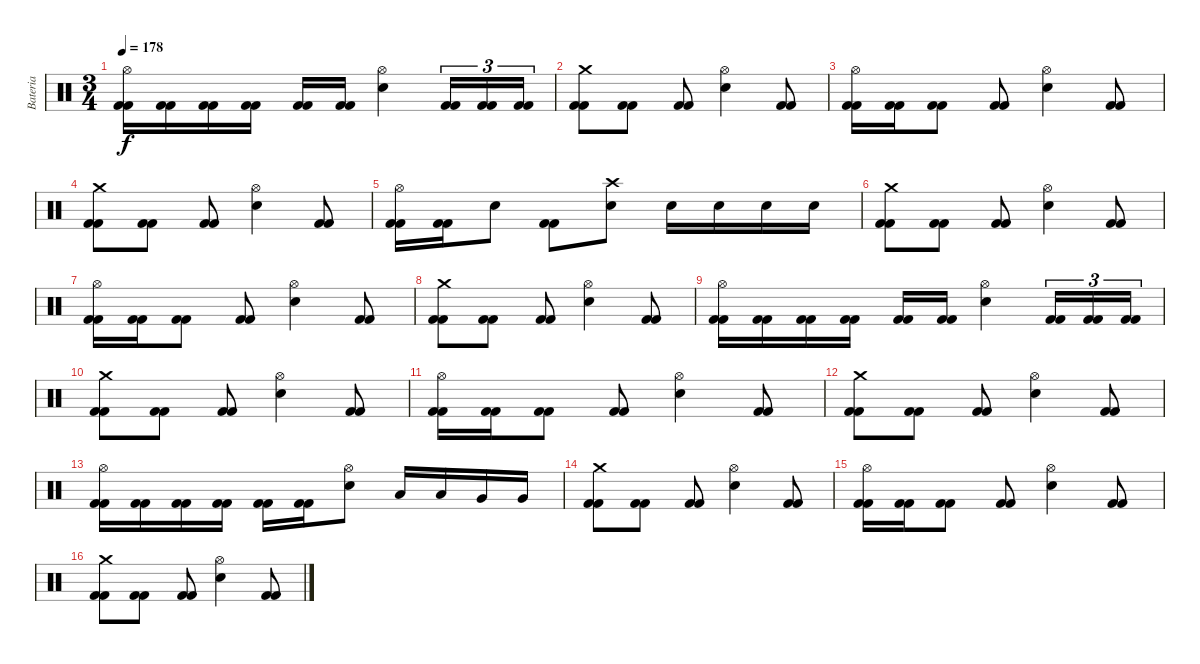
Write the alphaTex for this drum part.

\track ("Bateria" "Bateria") {instrument percussion}
\staff {score}
\articulation defaults
\ts (3 4)
\tempo 178
\clef neutral
\ks c
("Kick (hit) 2" "Kick (hit) 2" "Hi-Hat (open)").16{dy f} ("Kick (hit) 2" "Kick (hit) 2").16 ("Kick (hit) 2" "Kick (hit) 2").16 ("Kick (hit) 2" "Kick (hit) 2").16 ("Kick (hit) 2" "Kick (hit) 2").16 ("Kick (hit) 2" "Kick (hit) 2").16 ("Snare (hit) 2" "Hi-Hat (open)").4 ("Kick (hit) 2" "Kick (hit) 2").16{tu (3 2)} ("Kick (hit) 2" "Kick (hit) 2").16{tu (3 2)} ("Kick (hit) 2" "Kick (hit) 2").16{tu (3 2)} |
("Kick (hit) 2" "Kick (hit) 2" "Crash medium (hit)").8 ("Kick (hit) 2" "Kick (hit) 2").8 ("Kick (hit) 2" "Kick (hit) 2").8 ("Snare (hit) 2" "Hi-Hat (open)").4 ("Kick (hit) 2" "Kick (hit) 2").8 |
("Kick (hit) 2" "Kick (hit) 2" "Hi-Hat (open)").16 ("Kick (hit) 2" "Kick (hit) 2").16 ("Kick (hit) 2" "Kick (hit) 2").8 ("Kick (hit) 2" "Kick (hit) 2").8 ("Snare (hit) 2" "Hi-Hat (open)").4 ("Kick (hit) 2" "Kick (hit) 2").8 |
("Kick (hit) 2" "Kick (hit) 2" "Crash medium (hit)").8 ("Kick (hit) 2" "Kick (hit) 2").8 ("Kick (hit) 2" "Kick (hit) 2").8 ("Snare (hit) 2" "Hi-Hat (open)").4 ("Kick (hit) 2" "Kick (hit) 2").8 |
("Kick (hit) 2" "Kick (hit) 2" "Hi-Hat (open)").16 ("Kick (hit) 2" "Kick (hit) 2").16 "Snare (hit) 2".8 ("Kick (hit) 2" "Kick (hit) 2").8 ("Snare (hit) 2" "Crash high (hit)").8 "Snare (hit) 2".16 "Snare (hit) 2".16 "Snare (hit) 2".16 "Snare (hit) 2".16 |
("Kick (hit) 2" "Kick (hit) 2" "Crash medium (hit)").8 ("Kick (hit) 2" "Kick (hit) 2").8 ("Kick (hit) 2" "Kick (hit) 2").8 ("Snare (hit) 2" "Hi-Hat (open)").4 ("Kick (hit) 2" "Kick (hit) 2").8 |
("Kick (hit) 2" "Kick (hit) 2" "Hi-Hat (open)").16 ("Kick (hit) 2" "Kick (hit) 2").16 ("Kick (hit) 2" "Kick (hit) 2").8 ("Kick (hit) 2" "Kick (hit) 2").8 ("Snare (hit) 2" "Hi-Hat (open)").4 ("Kick (hit) 2" "Kick (hit) 2").8 |
("Kick (hit) 2" "Kick (hit) 2" "Crash medium (hit)").8 ("Kick (hit) 2" "Kick (hit) 2").8 ("Kick (hit) 2" "Kick (hit) 2").8 ("Snare (hit) 2" "Hi-Hat (open)").4 ("Kick (hit) 2" "Kick (hit) 2").8 |
("Kick (hit) 2" "Kick (hit) 2" "Hi-Hat (open)").16 ("Kick (hit) 2" "Kick (hit) 2").16 ("Kick (hit) 2" "Kick (hit) 2").16 ("Kick (hit) 2" "Kick (hit) 2").16 ("Kick (hit) 2" "Kick (hit) 2").16 ("Kick (hit) 2" "Kick (hit) 2").16 ("Snare (hit) 2" "Hi-Hat (open)").4 ("Kick (hit) 2" "Kick (hit) 2").16{tu (3 2)} ("Kick (hit) 2" "Kick (hit) 2").16{tu (3 2)} ("Kick (hit) 2" "Kick (hit) 2").16{tu (3 2)} |
("Kick (hit) 2" "Kick (hit) 2" "Crash medium (hit)").8 ("Kick (hit) 2" "Kick (hit) 2").8 ("Kick (hit) 2" "Kick (hit) 2").8 ("Snare (hit) 2" "Hi-Hat (open)").4 ("Kick (hit) 2" "Kick (hit) 2").8 |
("Kick (hit) 2" "Kick (hit) 2" "Hi-Hat (open)").16 ("Kick (hit) 2" "Kick (hit) 2").16 ("Kick (hit) 2" "Kick (hit) 2").8 ("Kick (hit) 2" "Kick (hit) 2").8 ("Snare (hit) 2" "Hi-Hat (open)").4 ("Kick (hit) 2" "Kick (hit) 2").8 |
("Kick (hit) 2" "Kick (hit) 2" "Crash medium (hit)").8 ("Kick (hit) 2" "Kick (hit) 2").8 ("Kick (hit) 2" "Kick (hit) 2").8 ("Snare (hit) 2" "Hi-Hat (open)").4 ("Kick (hit) 2" "Kick (hit) 2").8 |
("Kick (hit) 2" "Kick (hit) 2" "Hi-Hat (open)").16 ("Kick (hit) 2" "Kick (hit) 2").16 ("Kick (hit) 2" "Kick (hit) 2").16 ("Kick (hit) 2" "Kick (hit) 2").16 ("Kick (hit) 2" "Kick (hit) 2").16 ("Kick (hit) 2" "Kick (hit) 2").16 ("Snare (hit) 2" "Hi-Hat (open)").8 "Low Tom (hit)".16 "Low Tom (hit)".16 "Very Low Tom (hit)".16 "Very Low Tom (hit)".16 |
("Kick (hit) 2" "Kick (hit) 2" "Crash medium (hit)").8 ("Kick (hit) 2" "Kick (hit) 2").8 ("Kick (hit) 2" "Kick (hit) 2").8 ("Snare (hit) 2" "Hi-Hat (open)").4 ("Kick (hit) 2" "Kick (hit) 2").8 |
("Kick (hit) 2" "Kick (hit) 2" "Hi-Hat (open)").16 ("Kick (hit) 2" "Kick (hit) 2").16 ("Kick (hit) 2" "Kick (hit) 2").8 ("Kick (hit) 2" "Kick (hit) 2").8 ("Snare (hit) 2" "Hi-Hat (open)").4 ("Kick (hit) 2" "Kick (hit) 2").8 |
("Kick (hit) 2" "Kick (hit) 2" "Crash medium (hit)").8 ("Kick (hit) 2" "Kick (hit) 2").8 ("Kick (hit) 2" "Kick (hit) 2").8 ("Snare (hit) 2" "Hi-Hat (open)").4 ("Kick (hit) 2" "Kick (hit) 2").8
